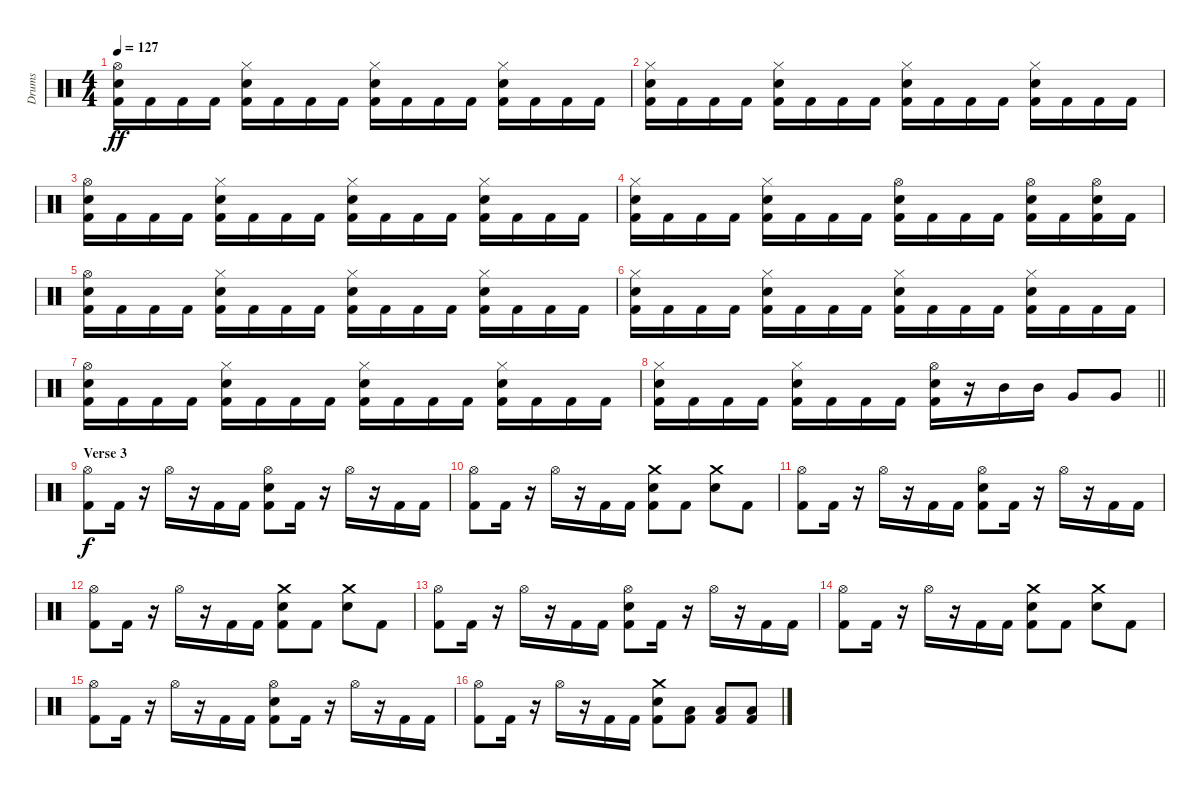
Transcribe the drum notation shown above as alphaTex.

\track ("Drums" "Drums") {instrument percussion}
\staff {score}
\articulation defaults
\ts (4 4)
\tempo 127
\clef neutral
\ks c
("Hi-Hat (open)" "Electric Snare (hit)" "Kick (hit) 2").16{dy ff} "Kick (hit) 2".16 "Kick (hit) 2".16 "Kick (hit) 2".16 ("Hi-Hat (closed)" "Electric Snare (hit)" "Kick (hit) 2").16 "Kick (hit) 2".16 "Kick (hit) 2".16 "Kick (hit) 2".16 ("Hi-Hat (closed)" "Electric Snare (hit)" "Kick (hit) 2").16 "Kick (hit) 2".16 "Kick (hit) 2".16 "Kick (hit) 2".16 ("Hi-Hat (closed)" "Electric Snare (hit)" "Kick (hit) 2").16 "Kick (hit) 2".16 "Kick (hit) 2".16 "Kick (hit) 2".16 |
("Hi-Hat (closed)" "Electric Snare (hit)" "Kick (hit) 2").16 "Kick (hit) 2".16 "Kick (hit) 2".16 "Kick (hit) 2".16 ("Hi-Hat (closed)" "Electric Snare (hit)" "Kick (hit) 2").16 "Kick (hit) 2".16 "Kick (hit) 2".16 "Kick (hit) 2".16 ("Hi-Hat (closed)" "Electric Snare (hit)" "Kick (hit) 2").16 "Kick (hit) 2".16 "Kick (hit) 2".16 "Kick (hit) 2".16 ("Hi-Hat (closed)" "Electric Snare (hit)" "Kick (hit) 2").16 "Kick (hit) 2".16 "Kick (hit) 2".16 "Kick (hit) 2".16 |
("Hi-Hat (open)" "Electric Snare (hit)" "Kick (hit) 2").16 "Kick (hit) 2".16 "Kick (hit) 2".16 "Kick (hit) 2".16 ("Hi-Hat (closed)" "Electric Snare (hit)" "Kick (hit) 2").16 "Kick (hit) 2".16 "Kick (hit) 2".16 "Kick (hit) 2".16 ("Hi-Hat (closed)" "Electric Snare (hit)" "Kick (hit) 2").16 "Kick (hit) 2".16 "Kick (hit) 2".16 "Kick (hit) 2".16 ("Hi-Hat (closed)" "Electric Snare (hit)" "Kick (hit) 2").16 "Kick (hit) 2".16 "Kick (hit) 2".16 "Kick (hit) 2".16 |
("Hi-Hat (closed)" "Electric Snare (hit)" "Kick (hit) 2").16 "Kick (hit) 2".16 "Kick (hit) 2".16 "Kick (hit) 2".16 ("Hi-Hat (closed)" "Electric Snare (hit)" "Kick (hit) 2").16 "Kick (hit) 2".16 "Kick (hit) 2".16 "Kick (hit) 2".16 ("Hi-Hat (open)" "Electric Snare (hit)" "Kick (hit) 2").16 "Kick (hit) 2".16 "Kick (hit) 2".16 "Kick (hit) 2".16 ("Hi-Hat (open)" "Electric Snare (hit)" "Kick (hit) 2").16 "Kick (hit) 2".16 ("Hi-Hat (open)" "Electric Snare (hit)" "Kick (hit) 2").16 "Kick (hit) 2".16 |
("Hi-Hat (open)" "Electric Snare (hit)" "Kick (hit) 2").16 "Kick (hit) 2".16 "Kick (hit) 2".16 "Kick (hit) 2".16 ("Hi-Hat (closed)" "Electric Snare (hit)" "Kick (hit) 2").16 "Kick (hit) 2".16 "Kick (hit) 2".16 "Kick (hit) 2".16 ("Hi-Hat (closed)" "Electric Snare (hit)" "Kick (hit) 2").16 "Kick (hit) 2".16 "Kick (hit) 2".16 "Kick (hit) 2".16 ("Hi-Hat (closed)" "Electric Snare (hit)" "Kick (hit) 2").16 "Kick (hit) 2".16 "Kick (hit) 2".16 "Kick (hit) 2".16 |
("Hi-Hat (closed)" "Electric Snare (hit)" "Kick (hit) 2").16 "Kick (hit) 2".16 "Kick (hit) 2".16 "Kick (hit) 2".16 ("Hi-Hat (closed)" "Electric Snare (hit)" "Kick (hit) 2").16 "Kick (hit) 2".16 "Kick (hit) 2".16 "Kick (hit) 2".16 ("Hi-Hat (closed)" "Electric Snare (hit)" "Kick (hit) 2").16 "Kick (hit) 2".16 "Kick (hit) 2".16 "Kick (hit) 2".16 ("Hi-Hat (closed)" "Electric Snare (hit)" "Kick (hit) 2").16 "Kick (hit) 2".16 "Kick (hit) 2".16 "Kick (hit) 2".16 |
("Hi-Hat (open)" "Electric Snare (hit)" "Kick (hit) 2").16 "Kick (hit) 2".16 "Kick (hit) 2".16 "Kick (hit) 2".16 ("Hi-Hat (closed)" "Electric Snare (hit)" "Kick (hit) 2").16 "Kick (hit) 2".16 "Kick (hit) 2".16 "Kick (hit) 2".16 ("Hi-Hat (closed)" "Electric Snare (hit)" "Kick (hit) 2").16 "Kick (hit) 2".16 "Kick (hit) 2".16 "Kick (hit) 2".16 ("Hi-Hat (closed)" "Electric Snare (hit)" "Kick (hit) 2").16 "Kick (hit) 2".16 "Kick (hit) 2".16 "Kick (hit) 2".16 |
\barLineRight lightlight
("Hi-Hat (closed)" "Electric Snare (hit)" "Kick (hit) 2").16 "Kick (hit) 2".16 "Kick (hit) 2".16 "Kick (hit) 2".16 ("Hi-Hat (closed)" "Electric Snare (hit)" "Kick (hit) 2").16 "Kick (hit) 2".16 "Kick (hit) 2".16 "Kick (hit) 2".16 ("Hi-Hat (open)" "Electric Snare (hit)" "Kick (hit) 2").16 r.16 "Mid Tom (hit)".16 "Mid Tom (hit)".16 "Very Low Tom (hit)".8 "Very Low Tom (hit)".8 |
\section ("" "Verse 3")
("Hi-Hat (open)" "Kick (hit) 2").8{dy f} "Kick (hit) 2".16 r.16 "Hi-Hat (open)".16 r.16 "Kick (hit) 2".16 "Kick (hit) 2".16 ("Hi-Hat (open)" "Electric Snare (hit)" "Kick (hit) 2").8 "Kick (hit) 2".16 r.16 "Hi-Hat (open)".16 r.16 "Kick (hit) 2".16 "Kick (hit) 2".16 |
("Hi-Hat (open)" "Kick (hit) 2").8 "Kick (hit) 2".16 r.16 "Hi-Hat (open)".16 r.16 "Kick (hit) 2".16 "Kick (hit) 2".16 ("Crash medium (hit)" "Electric Snare (hit)" "Kick (hit) 2").8 "Kick (hit) 2".8 ("Crash medium (hit)" "Electric Snare (hit)").8 "Kick (hit) 2".8 |
("Hi-Hat (open)" "Kick (hit) 2").8 "Kick (hit) 2".16 r.16 "Hi-Hat (open)".16 r.16 "Kick (hit) 2".16 "Kick (hit) 2".16 ("Hi-Hat (open)" "Electric Snare (hit)" "Kick (hit) 2").8 "Kick (hit) 2".16 r.16 "Hi-Hat (open)".16 r.16 "Kick (hit) 2".16 "Kick (hit) 2".16 |
("Hi-Hat (open)" "Kick (hit) 2").8 "Kick (hit) 2".16 r.16 "Hi-Hat (open)".16 r.16 "Kick (hit) 2".16 "Kick (hit) 2".16 ("Crash medium (hit)" "Electric Snare (hit)" "Kick (hit) 2").8 "Kick (hit) 2".8 ("Crash medium (hit)" "Electric Snare (hit)").8 "Kick (hit) 2".8 |
("Hi-Hat (open)" "Kick (hit) 2").8 "Kick (hit) 2".16 r.16 "Hi-Hat (open)".16 r.16 "Kick (hit) 2".16 "Kick (hit) 2".16 ("Hi-Hat (open)" "Electric Snare (hit)" "Kick (hit) 2").8 "Kick (hit) 2".16 r.16 "Hi-Hat (open)".16 r.16 "Kick (hit) 2".16 "Kick (hit) 2".16 |
("Hi-Hat (open)" "Kick (hit) 2").8 "Kick (hit) 2".16 r.16 "Hi-Hat (open)".16 r.16 "Kick (hit) 2".16 "Kick (hit) 2".16 ("Crash medium (hit)" "Electric Snare (hit)" "Kick (hit) 2").8 "Kick (hit) 2".8 ("Crash medium (hit)" "Electric Snare (hit)").8 "Kick (hit) 2".8 |
("Hi-Hat (open)" "Kick (hit) 2").8 "Kick (hit) 2".16 r.16 "Hi-Hat (open)".16 r.16 "Kick (hit) 2".16 "Kick (hit) 2".16 ("Hi-Hat (open)" "Electric Snare (hit)" "Kick (hit) 2").8 "Kick (hit) 2".16 r.16 "Hi-Hat (open)".16 r.16 "Kick (hit) 2".16 "Kick (hit) 2".16 |
("Hi-Hat (open)" "Kick (hit) 2").8 "Kick (hit) 2".16 r.16 "Hi-Hat (open)".16 r.16 "Kick (hit) 2".16 "Kick (hit) 2".16 ("Crash medium (hit)" "Electric Snare (hit)" "Kick (hit) 2").8 ("Low Tom (hit)" "Kick (hit) 2").8 ("Low Tom (hit)" "Kick (hit) 2").8 ("Low Tom (hit)" "Kick (hit) 2").8
